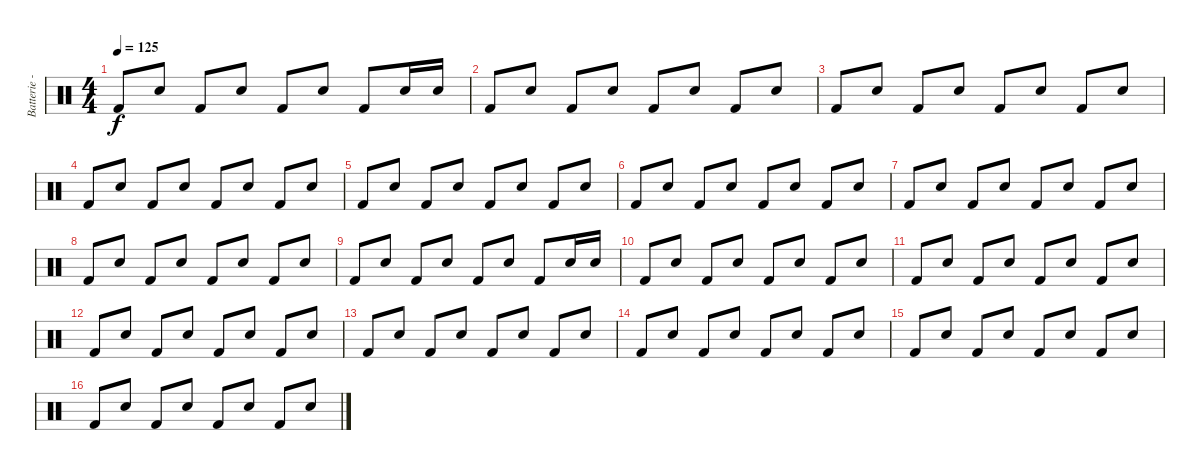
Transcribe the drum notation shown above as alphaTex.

\track ("Batterie - Shane Gaalaas" "Batterie -") {instrument percussion}
\staff {score}
\articulation defaults
\ts (4 4)
\tempo 125
\clef neutral
\ks c "Kick (hit) 2".8{dy f} "Electric Snare (hit)".8 "Kick (hit) 2".8 "Electric Snare (hit)".8 "Kick (hit) 2".8 "Electric Snare (hit)".8 "Kick (hit) 2".8 "Electric Snare (hit)".16 "Electric Snare (hit)".16
|
"Kick (hit) 2".8 "Electric Snare (hit)".8 "Kick (hit) 2".8 "Electric Snare (hit)".8 "Kick (hit) 2".8 "Electric Snare (hit)".8 "Kick (hit) 2".8 "Electric Snare (hit)".8 |
"Kick (hit) 2".8 "Electric Snare (hit)".8 "Kick (hit) 2".8 "Electric Snare (hit)".8 "Kick (hit) 2".8 "Electric Snare (hit)".8 "Kick (hit) 2".8 "Electric Snare (hit)".8 |
"Kick (hit) 2".8 "Electric Snare (hit)".8 "Kick (hit) 2".8 "Electric Snare (hit)".8 "Kick (hit) 2".8 "Electric Snare (hit)".8 "Kick (hit) 2".8 "Electric Snare (hit)".8 |
"Kick (hit) 2".8 "Electric Snare (hit)".8 "Kick (hit) 2".8 "Electric Snare (hit)".8 "Kick (hit) 2".8 "Electric Snare (hit)".8 "Kick (hit) 2".8 "Electric Snare (hit)".8 |
"Kick (hit) 2".8 "Electric Snare (hit)".8 "Kick (hit) 2".8 "Electric Snare (hit)".8 "Kick (hit) 2".8 "Electric Snare (hit)".8 "Kick (hit) 2".8 "Electric Snare (hit)".8 |
"Kick (hit) 2".8 "Electric Snare (hit)".8 "Kick (hit) 2".8 "Electric Snare (hit)".8 "Kick (hit) 2".8 "Electric Snare (hit)".8 "Kick (hit) 2".8 "Electric Snare (hit)".8 |
"Kick (hit) 2".8 "Electric Snare (hit)".8 "Kick (hit) 2".8 "Electric Snare (hit)".8 "Kick (hit) 2".8 "Electric Snare (hit)".8 "Kick (hit) 2".8 "Electric Snare (hit)".8 |
"Kick (hit) 2".8 "Electric Snare (hit)".8 "Kick (hit) 2".8 "Electric Snare (hit)".8 "Kick (hit) 2".8 "Electric Snare (hit)".8 "Kick (hit) 2".8 "Electric Snare (hit)".16 "Electric Snare (hit)".16 |
"Kick (hit) 2".8 "Electric Snare (hit)".8 "Kick (hit) 2".8 "Electric Snare (hit)".8 "Kick (hit) 2".8 "Electric Snare (hit)".8 "Kick (hit) 2".8 "Electric Snare (hit)".8 |
"Kick (hit) 2".8 "Electric Snare (hit)".8 "Kick (hit) 2".8 "Electric Snare (hit)".8 "Kick (hit) 2".8 "Electric Snare (hit)".8 "Kick (hit) 2".8 "Electric Snare (hit)".8 |
"Kick (hit) 2".8 "Electric Snare (hit)".8 "Kick (hit) 2".8 "Electric Snare (hit)".8 "Kick (hit) 2".8 "Electric Snare (hit)".8 "Kick (hit) 2".8 "Electric Snare (hit)".8 |
"Kick (hit) 2".8 "Electric Snare (hit)".8 "Kick (hit) 2".8 "Electric Snare (hit)".8 "Kick (hit) 2".8 "Electric Snare (hit)".8 "Kick (hit) 2".8 "Electric Snare (hit)".8 |
"Kick (hit) 2".8 "Electric Snare (hit)".8 "Kick (hit) 2".8 "Electric Snare (hit)".8 "Kick (hit) 2".8 "Electric Snare (hit)".8 "Kick (hit) 2".8 "Electric Snare (hit)".8 |
"Kick (hit) 2".8 "Electric Snare (hit)".8 "Kick (hit) 2".8 "Electric Snare (hit)".8 "Kick (hit) 2".8 "Electric Snare (hit)".8 "Kick (hit) 2".8 "Electric Snare (hit)".8 |
"Kick (hit) 2".8 "Electric Snare (hit)".8 "Kick (hit) 2".8 "Electric Snare (hit)".8 "Kick (hit) 2".8 "Electric Snare (hit)".8 "Kick (hit) 2".8 "Electric Snare (hit)".8
